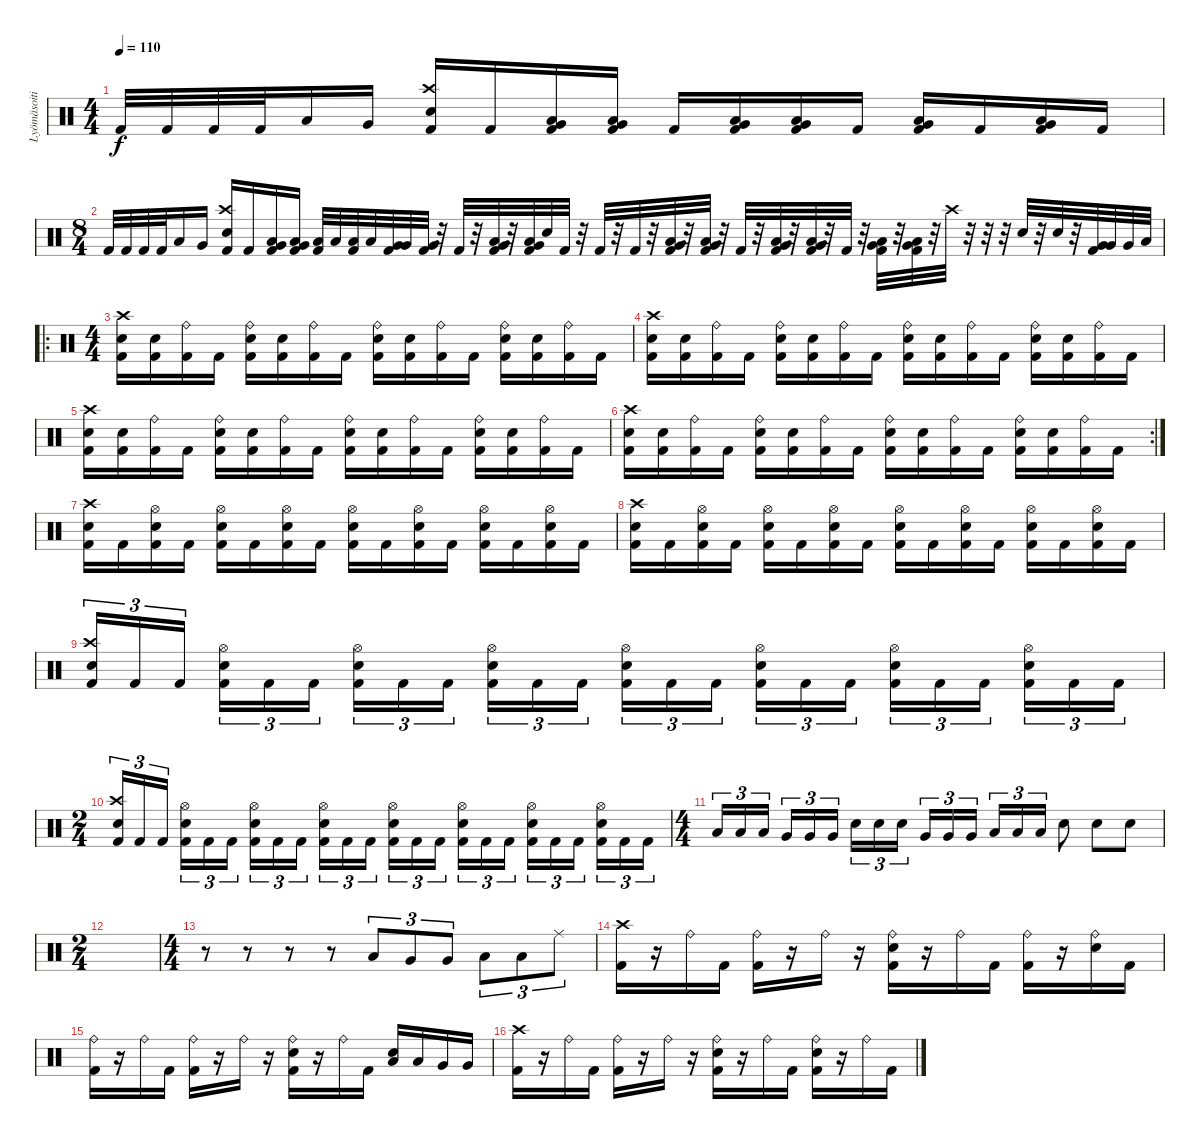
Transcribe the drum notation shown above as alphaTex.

\track ("Lyömäsoitin" "Lyömäsoiti") {instrument percussion}
\staff {score}
\articulation defaults
\ts (4 4)
\tempo 110
\clef neutral
\ks c "Kick (hit) 2".32{dy f} "Kick (hit) 2".32 "Kick (hit) 2".32 "Kick (hit) 2".32 "Low Tom (hit)".16 "Very Low Tom (hit)".16
("Crash high (hit)" "Electric Snare (hit)" "Kick (hit) 2").16 "Kick (hit) 2".16 ("Low Tom (hit)" "Very Low Tom (hit)" "Kick (hit) 2").16 ("Low Tom (hit)" "Very Low Tom (hit)" "Kick (hit) 2").16 "Kick (hit) 2".16 ("Very Low Tom (hit)" "Low Tom (hit)" "Kick (hit) 2").16 ("Low Tom (hit)" "Very Low Tom (hit)" "Kick (hit) 2").16 "Kick (hit) 2".16 ("Low Tom (hit)" "Very Low Tom (hit)" "Kick (hit) 2").16 "Kick (hit) 2".16 ("Low Tom (hit)" "Very Low Tom (hit)" "Kick (hit) 2").16 "Kick (hit) 2".16 |
\ts (8 4)
"Kick (hit) 2".32 "Kick (hit) 2".32 "Kick (hit) 2".32 "Kick (hit) 2".32 "Low Tom (hit)".16 "Very Low Tom (hit)".16 ("Crash high (hit)" "Electric Snare (hit)" "Kick (hit) 2").16 "Kick (hit) 2".16 ("Low Tom (hit)" "Very Low Tom (hit)" "Kick (hit) 2").16 ("Low Tom (hit)" "Very Low Tom (hit)" "Kick (hit) 2").16 ("Low Tom (hit)" "Kick (hit) 2").32 "Low Tom (hit)".32 ("Low Tom (hit)" "Kick (hit) 2").32 "Low Tom (hit)".32 ("Very Low Tom (hit)" "Kick (hit) 2").32 "Very Low Tom (hit)".32 ("Very Low Tom (hit)" "Kick (hit) 2").32 r.32 "Kick (hit) 2".32 r.32 ("Low Tom (hit)" "Very Low Tom (hit)" "Kick (hit) 2").32 r.32 ("Very Low Tom (hit)" "Low Tom (hit)" "Kick (hit) 2").32 "Snare (hit)".32 "Kick (hit) 2".32 r.32 "Kick (hit) 2".32 r.32 "Kick (hit) 2".32 r.32 ("Low Tom (hit)" "Very Low Tom (hit)" "Kick (hit) 2").32 r.32 ("Very Low Tom (hit)" "Low Tom (hit)" "Kick (hit) 2").32 r.32 "Kick (hit) 2".32 r.32 ("Low Tom (hit)" "Very Low Tom (hit)" "Kick (hit) 2").32 r.32 ("Low Tom (hit)" "Very Low Tom (hit)" "Kick (hit) 2").32 r.32 "Kick (hit) 2".32 r.32 ("Low Tom (hit)" "Very Low Tom (hit)" "Kick (hit) 2").32 r.32 ("Low Tom (hit)" "Very Low Tom (hit)" "Kick (hit) 2").32 r.32 "Crash high (hit)".32 r.32 r.32 r.32 "Electric Snare (hit)".32 r.32 "Electric Snare (hit)".32 r.32 ("Very Low Tom (hit)" "Kick (hit) 2").32 "Very Low Tom (hit)".32 "Very Low Tom (hit)".32 "Low Floor Tom (hit)".32 |
\ro
\ts (4 4)
("Crash high (hit)" "Electric Snare (hit)" "Kick (hit) 2").16 ("Electric Snare (hit)" "Kick (hit) 2").16 ("Ride (bell)" "Kick (hit) 2").16 "Kick (hit) 2".16 ("Ride (bell)" "Electric Snare (hit)" "Kick (hit) 2").16 ("Electric Snare (hit)" "Kick (hit) 2").16 ("Ride (bell)" "Kick (hit) 2").16 "Kick (hit) 2".16 ("Ride (bell)" "Electric Snare (hit)" "Kick (hit) 2").16 ("Electric Snare (hit)" "Kick (hit) 2").16 ("Ride (bell)" "Kick (hit) 2").16 "Kick (hit) 2".16 ("Ride (bell)" "Electric Snare (hit)" "Kick (hit) 2").16 ("Electric Snare (hit)" "Kick (hit) 2").16 ("Ride (bell)" "Kick (hit) 2").16 "Kick (hit) 2".16 |
("Crash high (hit)" "Electric Snare (hit)" "Kick (hit) 2").16 ("Electric Snare (hit)" "Kick (hit) 2").16 ("Ride (bell)" "Kick (hit) 2").16 "Kick (hit) 2".16 ("Ride (bell)" "Electric Snare (hit)" "Kick (hit) 2").16 ("Electric Snare (hit)" "Kick (hit) 2").16 ("Ride (bell)" "Kick (hit) 2").16 "Kick (hit) 2".16 ("Ride (bell)" "Electric Snare (hit)" "Kick (hit) 2").16 ("Electric Snare (hit)" "Kick (hit) 2").16 ("Ride (bell)" "Kick (hit) 2").16 "Kick (hit) 2".16 ("Ride (bell)" "Electric Snare (hit)" "Kick (hit) 2").16 ("Electric Snare (hit)" "Kick (hit) 2").16 ("Ride (bell)" "Kick (hit) 2").16 "Kick (hit) 2".16 |
("Crash high (hit)" "Electric Snare (hit)" "Kick (hit) 2").16 ("Electric Snare (hit)" "Kick (hit) 2").16 ("Ride (bell)" "Kick (hit) 2").16 "Kick (hit) 2".16 ("Ride (bell)" "Electric Snare (hit)" "Kick (hit) 2").16 ("Electric Snare (hit)" "Kick (hit) 2").16 ("Ride (bell)" "Kick (hit) 2").16 "Kick (hit) 2".16 ("Ride (bell)" "Electric Snare (hit)" "Kick (hit) 2").16 ("Electric Snare (hit)" "Kick (hit) 2").16 ("Ride (bell)" "Kick (hit) 2").16 "Kick (hit) 2".16 ("Ride (bell)" "Electric Snare (hit)" "Kick (hit) 2").16 ("Electric Snare (hit)" "Kick (hit) 2").16 ("Ride (bell)" "Kick (hit) 2").16 "Kick (hit) 2".16 |
\rc 2
("Crash high (hit)" "Electric Snare (hit)" "Kick (hit) 2").16 ("Electric Snare (hit)" "Kick (hit) 2").16 ("Ride (bell)" "Kick (hit) 2").16 "Kick (hit) 2".16 ("Ride (bell)" "Electric Snare (hit)" "Kick (hit) 2").16 ("Electric Snare (hit)" "Kick (hit) 2").16 ("Ride (bell)" "Kick (hit) 2").16 "Kick (hit) 2".16 ("Ride (bell)" "Electric Snare (hit)" "Kick (hit) 2").16 ("Electric Snare (hit)" "Kick (hit) 2").16 ("Ride (bell)" "Kick (hit) 2").16 "Kick (hit) 2".16 ("Ride (bell)" "Electric Snare (hit)" "Kick (hit) 2").16 ("Electric Snare (hit)" "Kick (hit) 2").16 ("Ride (bell)" "Kick (hit) 2").16 "Kick (hit) 2".16 |
("Crash high (hit)" "Electric Snare (hit)" "Kick (hit) 2").16 "Kick (hit) 2".16 ("Hi-Hat (open)" "Electric Snare (hit)" "Kick (hit) 2").16 "Kick (hit) 2".16 ("Hi-Hat (open)" "Electric Snare (hit)" "Kick (hit) 2").16 "Kick (hit) 2".16 ("Hi-Hat (open)" "Electric Snare (hit)" "Kick (hit) 2").16 "Kick (hit) 2".16 ("Hi-Hat (open)" "Electric Snare (hit)" "Kick (hit) 2").16 "Kick (hit) 2".16 ("Hi-Hat (open)" "Electric Snare (hit)" "Kick (hit) 2").16 "Kick (hit) 2".16 ("Hi-Hat (open)" "Electric Snare (hit)" "Kick (hit) 2").16 "Kick (hit) 2".16 ("Hi-Hat (open)" "Electric Snare (hit)" "Kick (hit) 2").16 "Kick (hit) 2".16 |
("Crash high (hit)" "Electric Snare (hit)" "Kick (hit) 2").16 "Kick (hit) 2".16 ("Hi-Hat (open)" "Electric Snare (hit)" "Kick (hit) 2").16 "Kick (hit) 2".16 ("Hi-Hat (open)" "Electric Snare (hit)" "Kick (hit) 2").16 "Kick (hit) 2".16 ("Hi-Hat (open)" "Electric Snare (hit)" "Kick (hit) 2").16 "Kick (hit) 2".16 ("Hi-Hat (open)" "Electric Snare (hit)" "Kick (hit) 2").16 "Kick (hit) 2".16 ("Hi-Hat (open)" "Electric Snare (hit)" "Kick (hit) 2").16 "Kick (hit) 2".16 ("Hi-Hat (open)" "Electric Snare (hit)" "Kick (hit) 2").16 "Kick (hit) 2".16 ("Hi-Hat (open)" "Electric Snare (hit)" "Kick (hit) 2").16 "Kick (hit) 2".16 |
("Crash high (hit)" "Electric Snare (hit)" "Kick (hit) 2").16{tu (3 2)} "Kick (hit) 2".16{tu (3 2)} "Kick (hit) 2".16{tu (3 2) beam splitsecondary} ("Hi-Hat (open)" "Electric Snare (hit)" "Kick (hit) 2").16{tu (3 2)} "Kick (hit) 2".16{tu (3 2)} "Kick (hit) 2".16{tu (3 2)} ("Hi-Hat (open)" "Electric Snare (hit)" "Kick (hit) 2").16{tu (3 2)} "Kick (hit) 2".16{tu (3 2)} "Kick (hit) 2".16{tu (3 2) beam splitsecondary} ("Hi-Hat (open)" "Electric Snare (hit)" "Kick (hit) 2").16{tu (3 2)} "Kick (hit) 2".16{tu (3 2)} "Kick (hit) 2".16{tu (3 2)} ("Hi-Hat (open)" "Electric Snare (hit)" "Kick (hit) 2").16{tu (3 2)} "Kick (hit) 2".16{tu (3 2)} "Kick (hit) 2".16{tu (3 2) beam splitsecondary} ("Hi-Hat (open)" "Electric Snare (hit)" "Kick (hit) 2").16{tu (3 2)} "Kick (hit) 2".16{tu (3 2)} "Kick (hit) 2".16{tu (3 2)} ("Hi-Hat (open)" "Electric Snare (hit)" "Kick (hit) 2").16{tu (3 2)} "Kick (hit) 2".16{tu (3 2)} "Kick (hit) 2".16{tu (3 2) beam splitsecondary} ("Hi-Hat (open)" "Electric Snare (hit)" "Kick (hit) 2").16{tu (3 2)} "Kick (hit) 2".16{tu (3 2)} "Kick (hit) 2".16{tu (3 2)} |
\ts (2 4)
("Crash high (hit)" "Electric Snare (hit)" "Kick (hit) 2").16{tu (3 2)} "Kick (hit) 2".16{tu (3 2)} "Kick (hit) 2".16{tu (3 2) beam splitsecondary} ("Hi-Hat (open)" "Electric Snare (hit)" "Kick (hit) 2").16{tu (3 2)} "Kick (hit) 2".16{tu (3 2)} "Kick (hit) 2".16{tu (3 2)} ("Hi-Hat (open)" "Electric Snare (hit)" "Kick (hit) 2").16{tu (3 2)} "Kick (hit) 2".16{tu (3 2)} "Kick (hit) 2".16{tu (3 2) beam splitsecondary} ("Hi-Hat (open)" "Electric Snare (hit)" "Kick (hit) 2").16{tu (3 2)} "Kick (hit) 2".16{tu (3 2)} "Kick (hit) 2".16{tu (3 2)} ("Hi-Hat (open)" "Electric Snare (hit)" "Kick (hit) 2").16{tu (3 2)} "Kick (hit) 2".16{tu (3 2)} "Kick (hit) 2".16{tu (3 2) beam splitsecondary} ("Hi-Hat (open)" "Electric Snare (hit)" "Kick (hit) 2").16{tu (3 2)} "Kick (hit) 2".16{tu (3 2)} "Kick (hit) 2".16{tu (3 2)} ("Hi-Hat (open)" "Electric Snare (hit)" "Kick (hit) 2").16{tu (3 2)} "Kick (hit) 2".16{tu (3 2)} "Kick (hit) 2".16{tu (3 2) beam splitsecondary} ("Hi-Hat (open)" "Electric Snare (hit)" "Kick (hit) 2").16{tu (3 2)} "Kick (hit) 2".16{tu (3 2)} "Kick (hit) 2".16{tu (3 2)} |
\ts (4 4)
"Low Tom (hit)".16{tu (3 2)} "Low Tom (hit)".16{tu (3 2)} "Low Tom (hit)".16{tu (3 2) beam splitsecondary} "Very Low Tom (hit)".16{tu (3 2)} "Very Low Tom (hit)".16{tu (3 2)} "Very Low Tom (hit)".16{tu (3 2)} "Electric Snare (hit)".16{tu (3 2)} "Electric Snare (hit)".16{tu (3 2)} "Electric Snare (hit)".16{tu (3 2) beam splitsecondary} "Very Low Tom (hit)".16{tu (3 2)} "Very Low Tom (hit)".16{tu (3 2)} "Very Low Tom (hit)".16{tu (3 2)} "Low Floor Tom (hit)".16{tu (3 2)} "Low Floor Tom (hit)".16{tu (3 2)} "Low Floor Tom (hit)".16{tu (3 2)} "Electric Snare (hit)".8 "Electric Snare (hit)".8 "Electric Snare (hit)".8 |
\ts (2 4)
|
\ts (4 4)
r.8 r.8 r.8 r.8 "Low Tom (hit)".8{tu (3 2)} "Very Low Tom (hit)".8{tu (3 2)} "Very Low Tom (hit)".8{tu (3 2)} "Low Floor Tom (hit)".8{tu (3 2)} "Low Floor Tom (hit)".8{tu (3 2)} "Ride (middle)".8{tu (3 2)} |
("Crash high (hit)" "Kick (hit) 2").16 r.16 "Ride (bell)".16 "Kick (hit) 2".16 ("Ride (bell)" "Kick (hit) 2").16 r.16 "Ride (bell)".16 r.16 ("Ride (bell)" "Electric Snare (hit)" "Kick (hit) 2").16 r.16 "Ride (bell)".16 "Kick (hit) 2".16 ("Ride (bell)" "Kick (hit) 2").16 r.16 ("Ride (bell)" "Electric Snare (hit)").16 "Kick (hit) 2".16 |
("Ride (bell)" "Kick (hit) 2").16 r.16 "Ride (bell)".16 "Kick (hit) 2".16 ("Ride (bell)" "Kick (hit) 2").16 r.16 "Ride (bell)".16 r.16 ("Ride (bell)" "Electric Snare (hit)" "Kick (hit) 2").16 r.16 "Ride (bell)".16 "Kick (hit) 2".16 ("Low Tom (hit)" "Electric Snare (hit)").16 "Low Tom (hit)".16 "Very Low Tom (hit)".16 "Very Low Tom (hit)".16 |
("Crash high (hit)" "Kick (hit) 2").16 r.16 "Ride (bell)".16 "Kick (hit) 2".16 ("Ride (bell)" "Kick (hit) 2").16 r.16 "Ride (bell)".16 r.16 ("Ride (bell)" "Electric Snare (hit)" "Kick (hit) 2").16 r.16 "Ride (bell)".16 "Kick (hit) 2".16 ("Ride (bell)" "Electric Snare (hit)" "Kick (hit) 2").16 r.16 "Ride (bell)".16 "Kick (hit) 2".16
